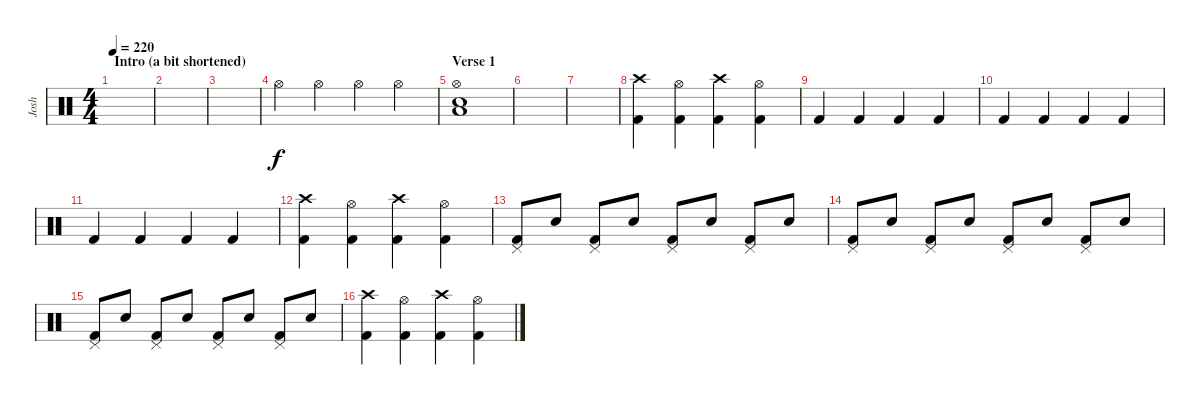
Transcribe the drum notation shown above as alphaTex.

\track ("Josh" "Josh") {instrument percussion}
\staff {score}
\articulation defaults
\ts (4 4)
\section ("" "Intro (a bit shortened)")
\tempo 220
\clef neutral
\ks c
|
|
|
"Hi-Hat (open)".4 "Hi-Hat (open)".4 "Hi-Hat (open)".4 "Hi-Hat (open)".4 |
\section ("" "Verse 1")
("Hi-Hat (open)" "Low Tom (hit)" "Snare (hit) 2").1 |
|
|
("Crash high (hit)" "Kick (hit) 2").4 ("Hi-Hat (open)" "Kick (hit) 2").4 ("Crash high (hit)" "Kick (hit) 2").4 ("Hi-Hat (open)" "Kick (hit) 2").4 |
"Kick (hit) 2".4 "Kick (hit) 2".4 "Kick (hit) 2".4 "Kick (hit) 2".4 |
"Kick (hit) 2".4 "Kick (hit) 2".4 "Kick (hit) 2".4 "Kick (hit) 2".4 |
"Kick (hit) 2".4 "Kick (hit) 2".4 "Kick (hit) 2".4 "Kick (hit) 2".4 |
("Crash high (hit)" "Kick (hit) 2").4 ("Hi-Hat (open)" "Kick (hit) 2").4 ("Crash high (hit)" "Kick (hit) 2").4 ("Hi-Hat (open)" "Kick (hit) 2").4 |
("Pedal Hi-Hat (hit)" "Kick (hit) 2").8 "Snare (hit) 2".8 ("Pedal Hi-Hat (hit)" "Kick (hit) 2").8 "Snare (hit) 2".8 ("Pedal Hi-Hat (hit)" "Kick (hit) 2").8 "Snare (hit) 2".8 ("Pedal Hi-Hat (hit)" "Kick (hit) 2").8 "Snare (hit) 2".8 |
("Pedal Hi-Hat (hit)" "Kick (hit) 2").8 "Snare (hit) 2".8 ("Pedal Hi-Hat (hit)" "Kick (hit) 2").8 "Snare (hit) 2".8 ("Pedal Hi-Hat (hit)" "Kick (hit) 2").8 "Snare (hit) 2".8 ("Pedal Hi-Hat (hit)" "Kick (hit) 2").8 "Snare (hit) 2".8 |
("Pedal Hi-Hat (hit)" "Kick (hit) 2").8 "Snare (hit) 2".8 ("Pedal Hi-Hat (hit)" "Kick (hit) 2").8 "Snare (hit) 2".8 ("Pedal Hi-Hat (hit)" "Kick (hit) 2").8 "Snare (hit) 2".8 ("Pedal Hi-Hat (hit)" "Kick (hit) 2").8 "Snare (hit) 2".8 |
("Crash high (hit)" "Kick (hit) 2").4 ("Hi-Hat (open)" "Kick (hit) 2").4 ("Crash high (hit)" "Kick (hit) 2").4 ("Hi-Hat (open)" "Kick (hit) 2").4
